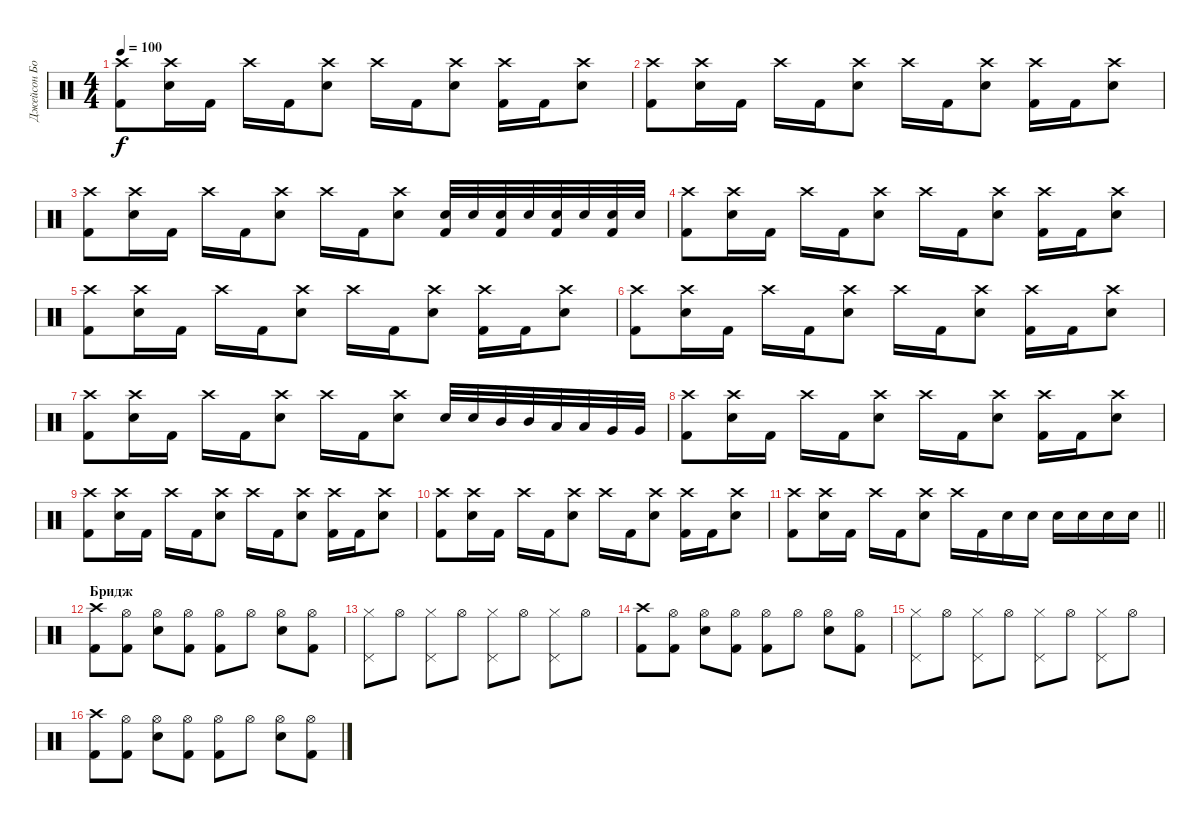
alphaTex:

\track ("Джейсон Бонэм" "Джейсон Бо") {instrument percussion}
\staff {score}
\articulation defaults
\ts (4 4)
\tempo 100
\clef neutral
\ks c
("Crash high (hit)" "Kick (hit) 2").8{dy f} ("Crash high (hit)" "Snare (hit) 2").16 "Kick (hit) 2".16 "Crash high (hit)".16 "Kick (hit) 2".16 ("Crash high (hit)" "Snare (hit) 2").8 "Crash high (hit)".16 "Kick (hit) 2".16 ("Crash high (hit)" "Snare (hit) 2").8 ("Crash high (hit)" "Kick (hit) 2").16 "Kick (hit) 2".16 ("Crash high (hit)" "Snare (hit) 2").8 |
("Crash high (hit)" "Kick (hit) 2").8 ("Crash high (hit)" "Snare (hit) 2").16 "Kick (hit) 2".16 "Crash high (hit)".16 "Kick (hit) 2".16 ("Crash high (hit)" "Snare (hit) 2").8 "Crash high (hit)".16 "Kick (hit) 2".16 ("Crash high (hit)" "Snare (hit) 2").8 ("Crash high (hit)" "Kick (hit) 2").16 "Kick (hit) 2".16 ("Crash high (hit)" "Snare (hit) 2").8 |
("Crash high (hit)" "Kick (hit) 2").8 ("Crash high (hit)" "Snare (hit) 2").16 "Kick (hit) 2".16 "Crash high (hit)".16 "Kick (hit) 2".16 ("Crash high (hit)" "Snare (hit) 2").8 "Crash high (hit)".16 "Kick (hit) 2".16 ("Crash high (hit)" "Snare (hit) 2").8 ("Snare (hit) 2" "Kick (hit) 2").32 "Snare (hit) 2".32 ("Snare (hit) 2" "Kick (hit) 2").32 "Snare (hit) 2".32 ("Snare (hit) 2" "Kick (hit) 2").32 "Snare (hit) 2".32 ("Snare (hit) 2" "Kick (hit) 2").32 "Snare (hit) 2".32 |
("Crash high (hit)" "Kick (hit) 2").8 ("Crash high (hit)" "Snare (hit) 2").16 "Kick (hit) 2".16 "Crash high (hit)".16 "Kick (hit) 2".16 ("Crash high (hit)" "Snare (hit) 2").8 "Crash high (hit)".16 "Kick (hit) 2".16 ("Crash high (hit)" "Snare (hit) 2").8 ("Crash high (hit)" "Kick (hit) 2").16 "Kick (hit) 2".16 ("Crash high (hit)" "Snare (hit) 2").8 |
("Crash high (hit)" "Kick (hit) 2").8 ("Crash high (hit)" "Snare (hit) 2").16 "Kick (hit) 2".16 "Crash high (hit)".16 "Kick (hit) 2".16 ("Crash high (hit)" "Snare (hit) 2").8 "Crash high (hit)".16 "Kick (hit) 2".16 ("Crash high (hit)" "Snare (hit) 2").8 ("Crash high (hit)" "Kick (hit) 2").16 "Kick (hit) 2".16 ("Crash high (hit)" "Snare (hit) 2").8 |
("Crash high (hit)" "Kick (hit) 2").8 ("Crash high (hit)" "Snare (hit) 2").16 "Kick (hit) 2".16 "Crash high (hit)".16 "Kick (hit) 2".16 ("Crash high (hit)" "Snare (hit) 2").8 "Crash high (hit)".16 "Kick (hit) 2".16 ("Crash high (hit)" "Snare (hit) 2").8 ("Crash high (hit)" "Kick (hit) 2").16 "Kick (hit) 2".16 ("Crash high (hit)" "Snare (hit) 2").8 |
("Crash high (hit)" "Kick (hit) 2").8 ("Crash high (hit)" "Snare (hit) 2").16 "Kick (hit) 2".16 "Crash high (hit)".16 "Kick (hit) 2".16 ("Crash high (hit)" "Snare (hit) 2").8 "Crash high (hit)".16 "Kick (hit) 2".16 ("Crash high (hit)" "Snare (hit) 2").8 "Snare (hit) 2".32 "Snare (hit) 2".32 "Mid Tom (hit)".32 "Mid Tom (hit)".32 "Low Tom (hit)".32 "Low Tom (hit)".32 "Very Low Tom (hit)".32 "Very Low Tom (hit)".32 |
("Crash high (hit)" "Kick (hit) 2").8 ("Crash high (hit)" "Snare (hit) 2").16 "Kick (hit) 2".16 "Crash high (hit)".16 "Kick (hit) 2".16 ("Crash high (hit)" "Snare (hit) 2").8 "Crash high (hit)".16 "Kick (hit) 2".16 ("Crash high (hit)" "Snare (hit) 2").8 ("Crash high (hit)" "Kick (hit) 2").16 "Kick (hit) 2".16 ("Crash high (hit)" "Snare (hit) 2").8 |
("Crash high (hit)" "Kick (hit) 2").8 ("Crash high (hit)" "Snare (hit) 2").16 "Kick (hit) 2".16 "Crash high (hit)".16 "Kick (hit) 2".16 ("Crash high (hit)" "Snare (hit) 2").8 "Crash high (hit)".16 "Kick (hit) 2".16 ("Crash high (hit)" "Snare (hit) 2").8 ("Crash high (hit)" "Kick (hit) 2").16 "Kick (hit) 2".16 ("Crash high (hit)" "Snare (hit) 2").8 |
("Crash high (hit)" "Kick (hit) 2").8 ("Crash high (hit)" "Snare (hit) 2").16 "Kick (hit) 2".16 "Crash high (hit)".16 "Kick (hit) 2".16 ("Crash high (hit)" "Snare (hit) 2").8 "Crash high (hit)".16 "Kick (hit) 2".16 ("Crash high (hit)" "Snare (hit) 2").8 ("Crash high (hit)" "Kick (hit) 2").16 "Kick (hit) 2".16 ("Crash high (hit)" "Snare (hit) 2").8 |
\barLineRight lightlight
("Crash high (hit)" "Kick (hit) 2").8 ("Crash high (hit)" "Snare (hit) 2").16 "Kick (hit) 2".16 "Crash high (hit)".16 "Kick (hit) 2".16 ("Crash high (hit)" "Snare (hit) 2").8 "Crash high (hit)".16 "Kick (hit) 2".16 "Snare (hit) 2".16 "Snare (hit) 2".16 "Snare (hit) 2".16 "Snare (hit) 2".16 "Snare (hit) 2".16 "Snare (hit) 2".16 |
\section ("" "Бридж")
("Crash high (hit)" "Kick (hit) 2").8 ("Hi-Hat (open)" "Kick (hit) 2").8 ("Hi-Hat (open)" "Snare (hit) 2").8 ("Hi-Hat (open)" "Kick (hit) 2").8 ("Hi-Hat (open)" "Kick (hit) 2").8 "Hi-Hat (open)".8 ("Hi-Hat (open)" "Snare (hit) 2").8 ("Hi-Hat (open)" "Kick (hit) 2").8 |
("Hi-Hat (closed)" "Pedal Hi-Hat (hit)").8 "Hi-Hat (open)".8 ("Hi-Hat (closed)" "Pedal Hi-Hat (hit)").8 "Hi-Hat (open)".8 ("Hi-Hat (closed)" "Pedal Hi-Hat (hit)").8 "Hi-Hat (open)".8 ("Hi-Hat (closed)" "Pedal Hi-Hat (hit)").8 "Hi-Hat (open)".8 |
("Crash high (hit)" "Kick (hit) 2").8 ("Hi-Hat (open)" "Kick (hit) 2").8 ("Hi-Hat (open)" "Snare (hit) 2").8 ("Hi-Hat (open)" "Kick (hit) 2").8 ("Hi-Hat (open)" "Kick (hit) 2").8 "Hi-Hat (open)".8 ("Hi-Hat (open)" "Snare (hit) 2").8 ("Hi-Hat (open)" "Kick (hit) 2").8 |
("Hi-Hat (closed)" "Pedal Hi-Hat (hit)").8 "Hi-Hat (open)".8 ("Hi-Hat (closed)" "Pedal Hi-Hat (hit)").8 "Hi-Hat (open)".8 ("Hi-Hat (closed)" "Pedal Hi-Hat (hit)").8 "Hi-Hat (open)".8 ("Hi-Hat (closed)" "Pedal Hi-Hat (hit)").8 "Hi-Hat (open)".8 |
("Crash high (hit)" "Kick (hit) 2").8 ("Hi-Hat (open)" "Kick (hit) 2").8 ("Hi-Hat (open)" "Snare (hit) 2").8 ("Hi-Hat (open)" "Kick (hit) 2").8 ("Hi-Hat (open)" "Kick (hit) 2").8 "Hi-Hat (open)".8 ("Hi-Hat (open)" "Snare (hit) 2").8 ("Hi-Hat (open)" "Kick (hit) 2").8
